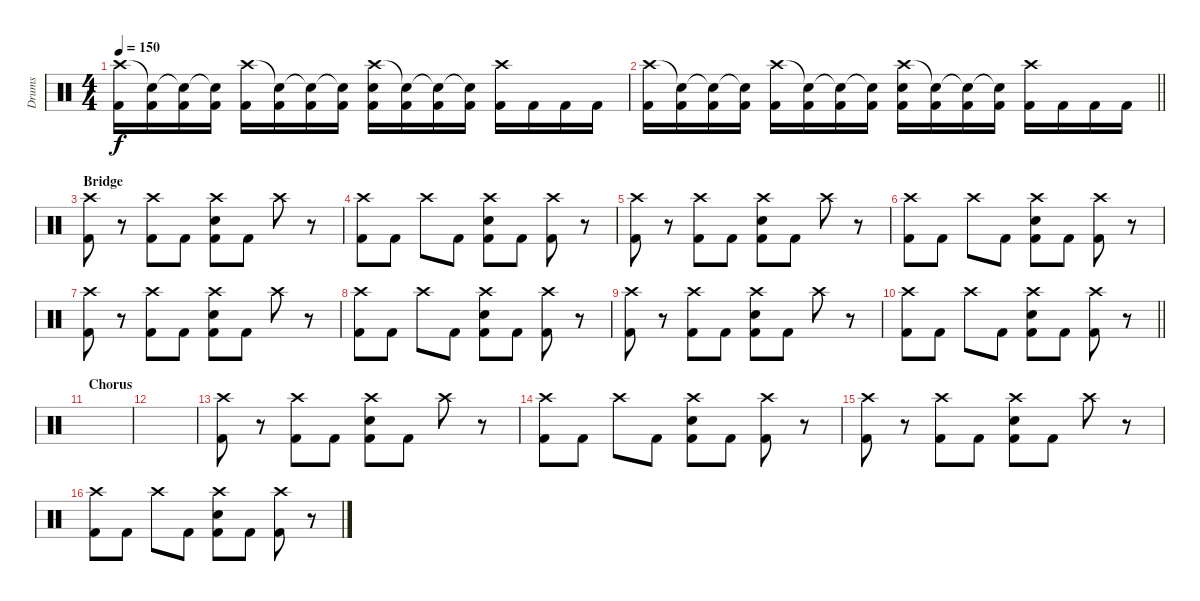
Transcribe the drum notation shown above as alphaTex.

\track ("Drums" "Drums") {instrument percussion}
\staff {score}
\articulation defaults
\ts (4 4)
\tempo 150
\clef neutral
\ks c
("Crash high (hit)" "Kick (hit) 2").16{dy f} ("Snare (hit)"{t} "Kick (hit) 2").16 ("Snare (hit)"{t} "Kick (hit) 2").16 ("Snare (hit)"{t} "Kick (hit) 2").16 ("Crash high (hit)" "Kick (hit) 2").16 ("Snare (hit)"{t} "Kick (hit) 2").16 ("Snare (hit)"{t} "Kick (hit) 2").16 ("Snare (hit)"{t} "Kick (hit) 2").16 ("Crash high (hit)" "Electric Snare (hit)" "Kick (hit) 2").16 ("Snare (hit)"{t} "Kick (hit) 2").16 ("Snare (hit)"{t} "Kick (hit) 2").16 ("Snare (hit)"{t} "Kick (hit) 2").16 ("Crash high (hit)" "Kick (hit) 2").16 "Kick (hit) 2".16 "Kick (hit) 2".16 "Kick (hit) 2".16 |
\barLineRight lightlight
("Crash high (hit)" "Kick (hit) 2").16 ("Snare (hit)"{t} "Kick (hit) 2").16 ("Snare (hit)"{t} "Kick (hit) 2").16 ("Snare (hit)"{t} "Kick (hit) 2").16 ("Crash high (hit)" "Kick (hit) 2").16 ("Snare (hit)"{t} "Kick (hit) 2").16 ("Snare (hit)"{t} "Kick (hit) 2").16 ("Snare (hit)"{t} "Kick (hit) 2").16 ("Crash high (hit)" "Electric Snare (hit)" "Kick (hit) 2").16 ("Snare (hit)"{t} "Kick (hit) 2").16 ("Snare (hit)"{t} "Kick (hit) 2").16 ("Snare (hit)"{t} "Kick (hit) 2").16 ("Crash high (hit)" "Kick (hit) 2").16 "Kick (hit) 2".16 "Kick (hit) 2".16 "Kick (hit) 2".16 |
\section ("" "Bridge")
("Crash high (hit)" "Kick (hit) 2").8 r.8 ("Crash high (hit)" "Kick (hit) 2").8 "Kick (hit) 2".8 ("Crash high (hit)" "Electric Snare (hit)" "Kick (hit) 2").8 "Kick (hit) 2".8 "Crash high (hit)".8 r.8 |
("Crash high (hit)" "Kick (hit) 2").8 "Kick (hit) 2".8 "Crash high (hit)".8 "Kick (hit) 2".8 ("Crash high (hit)" "Electric Snare (hit)" "Kick (hit) 2").8 "Kick (hit) 2".8 ("Crash high (hit)" "Kick (hit) 2").8 r.8 |
("Crash high (hit)" "Kick (hit) 2").8 r.8 ("Crash high (hit)" "Kick (hit) 2").8 "Kick (hit) 2".8 ("Crash high (hit)" "Electric Snare (hit)" "Kick (hit) 2").8 "Kick (hit) 2".8 "Crash high (hit)".8 r.8 |
("Crash high (hit)" "Kick (hit) 2").8 "Kick (hit) 2".8 "Crash high (hit)".8 "Kick (hit) 2".8 ("Crash high (hit)" "Electric Snare (hit)" "Kick (hit) 2").8 "Kick (hit) 2".8 ("Crash high (hit)" "Kick (hit) 2").8 r.8 |
("Crash high (hit)" "Kick (hit) 2").8 r.8 ("Crash high (hit)" "Kick (hit) 2").8 "Kick (hit) 2".8 ("Crash high (hit)" "Electric Snare (hit)" "Kick (hit) 2").8 "Kick (hit) 2".8 "Crash high (hit)".8 r.8 |
("Crash high (hit)" "Kick (hit) 2").8 "Kick (hit) 2".8 "Crash high (hit)".8 "Kick (hit) 2".8 ("Crash high (hit)" "Electric Snare (hit)" "Kick (hit) 2").8 "Kick (hit) 2".8 ("Crash high (hit)" "Kick (hit) 2").8 r.8 |
("Crash high (hit)" "Kick (hit) 2").8 r.8 ("Crash high (hit)" "Kick (hit) 2").8 "Kick (hit) 2".8 ("Crash high (hit)" "Electric Snare (hit)" "Kick (hit) 2").8 "Kick (hit) 2".8 "Crash high (hit)".8 r.8 |
\barLineRight lightlight
("Crash high (hit)" "Kick (hit) 2").8 "Kick (hit) 2".8 "Crash high (hit)".8 "Kick (hit) 2".8 ("Crash high (hit)" "Electric Snare (hit)" "Kick (hit) 2").8 "Kick (hit) 2".8 ("Crash high (hit)" "Kick (hit) 2").8 r.8 |
\section ("" "Chorus")
|
|
("Crash high (hit)" "Kick (hit) 2").8 r.8 ("Crash high (hit)" "Kick (hit) 2").8 "Kick (hit) 2".8 ("Crash high (hit)" "Electric Snare (hit)" "Kick (hit) 2").8 "Kick (hit) 2".8 "Crash high (hit)".8 r.8 |
("Crash high (hit)" "Kick (hit) 2").8 "Kick (hit) 2".8 "Crash high (hit)".8 "Kick (hit) 2".8 ("Crash high (hit)" "Electric Snare (hit)" "Kick (hit) 2").8 "Kick (hit) 2".8 ("Crash high (hit)" "Kick (hit) 2").8 r.8 |
("Crash high (hit)" "Kick (hit) 2").8 r.8 ("Crash high (hit)" "Kick (hit) 2").8 "Kick (hit) 2".8 ("Crash high (hit)" "Electric Snare (hit)" "Kick (hit) 2").8 "Kick (hit) 2".8 "Crash high (hit)".8 r.8 |
("Crash high (hit)" "Kick (hit) 2").8 "Kick (hit) 2".8 "Crash high (hit)".8 "Kick (hit) 2".8 ("Crash high (hit)" "Electric Snare (hit)" "Kick (hit) 2").8 "Kick (hit) 2".8 ("Crash high (hit)" "Kick (hit) 2").8 r.8
